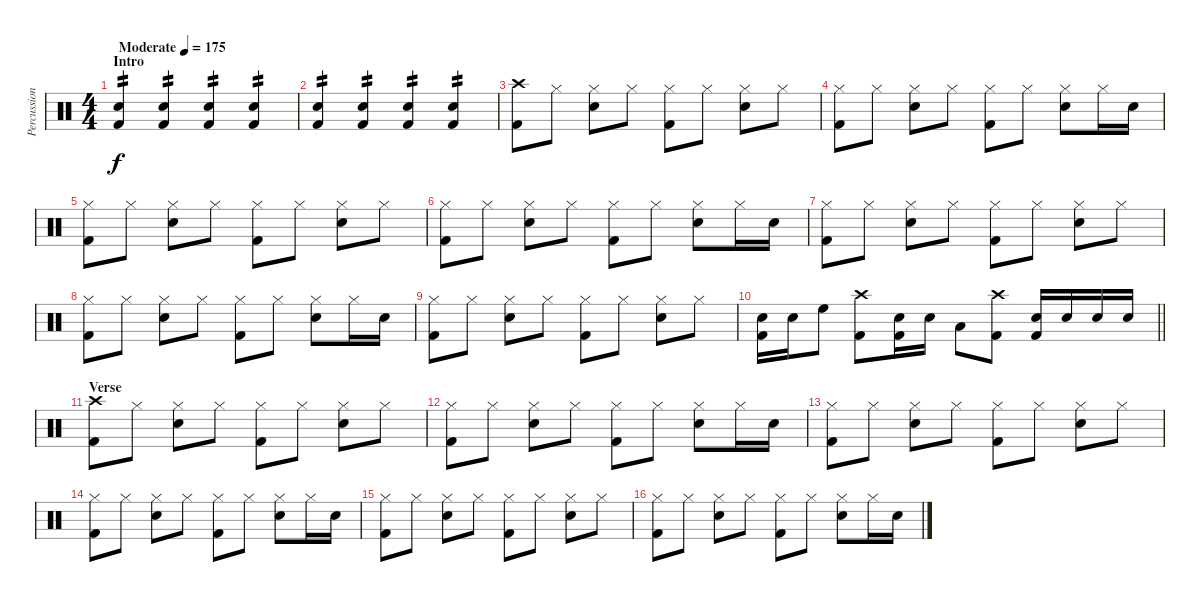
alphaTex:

\track ("Percussion" "Percussion") {instrument percussion}
\staff {score}
\articulation defaults
\ts (4 4)
\section ("" "Intro")
\tempo (175 "Moderate")
\clef neutral
\ks c
("Snare (hit) 2" "Kick (hit) 2").4{tp 2 dy f} ("Snare (hit) 2" "Kick (hit) 2").4{tp 2} ("Snare (hit) 2" "Kick (hit) 2").4{tp 2} ("Snare (hit) 2" "Kick (hit) 2").4{tp 2} |
("Snare (hit) 2" "Kick (hit) 2").4{tp 2} ("Snare (hit) 2" "Kick (hit) 2").4{tp 2} ("Snare (hit) 2" "Kick (hit) 2").4{tp 2} ("Snare (hit) 2" "Kick (hit) 2").4{tp 2} |
("Crash high (hit)" "Kick (hit) 2").8 "Hi-Hat (closed)".8 ("Hi-Hat (closed)" "Snare (hit) 2").8 "Hi-Hat (closed)".8 ("Hi-Hat (closed)" "Kick (hit) 2").8 "Hi-Hat (closed)".8 ("Hi-Hat (closed)" "Snare (hit) 2").8 "Hi-Hat (closed)".8 |
("Hi-Hat (closed)" "Kick (hit) 2").8 "Hi-Hat (closed)".8 ("Hi-Hat (closed)" "Snare (hit) 2").8 "Hi-Hat (closed)".8 ("Hi-Hat (closed)" "Kick (hit) 2").8 "Hi-Hat (closed)".8 ("Hi-Hat (closed)" "Snare (hit) 2").8 "Hi-Hat (closed)".16 "Snare (hit) 2".16 |
("Hi-Hat (closed)" "Kick (hit) 2").8 "Hi-Hat (closed)".8 ("Hi-Hat (closed)" "Snare (hit) 2").8 "Hi-Hat (closed)".8 ("Hi-Hat (closed)" "Kick (hit) 2").8 "Hi-Hat (closed)".8 ("Hi-Hat (closed)" "Snare (hit) 2").8 "Hi-Hat (closed)".8 |
("Hi-Hat (closed)" "Kick (hit) 2").8 "Hi-Hat (closed)".8 ("Hi-Hat (closed)" "Snare (hit) 2").8 "Hi-Hat (closed)".8 ("Hi-Hat (closed)" "Kick (hit) 2").8 "Hi-Hat (closed)".8 ("Hi-Hat (closed)" "Snare (hit) 2").8 "Hi-Hat (closed)".16 "Snare (hit) 2".16 |
("Hi-Hat (closed)" "Kick (hit) 2").8 "Hi-Hat (closed)".8 ("Hi-Hat (closed)" "Snare (hit) 2").8 "Hi-Hat (closed)".8 ("Hi-Hat (closed)" "Kick (hit) 2").8 "Hi-Hat (closed)".8 ("Hi-Hat (closed)" "Snare (hit) 2").8 "Hi-Hat (closed)".8 |
("Hi-Hat (closed)" "Kick (hit) 2").8 "Hi-Hat (closed)".8 ("Hi-Hat (closed)" "Snare (hit) 2").8 "Hi-Hat (closed)".8 ("Hi-Hat (closed)" "Kick (hit) 2").8 "Hi-Hat (closed)".8 ("Hi-Hat (closed)" "Snare (hit) 2").8 "Hi-Hat (closed)".16 "Snare (hit) 2".16 |
("Hi-Hat (closed)" "Kick (hit) 2").8 "Hi-Hat (closed)".8 ("Hi-Hat (closed)" "Snare (hit) 2").8 "Hi-Hat (closed)".8 ("Hi-Hat (closed)" "Kick (hit) 2").8 "Hi-Hat (closed)".8 ("Hi-Hat (closed)" "Snare (hit) 2").8 "Hi-Hat (closed)".8 |
\barLineRight lightlight
("Snare (hit) 2" "Kick (hit) 2").16 "Snare (hit) 2".16 "High Floor Tom (hit)".8 ("Crash high (hit)" "Kick (hit) 2").8 ("Snare (hit) 2" "Kick (hit) 2").16 "Snare (hit) 2".16 "Low Floor Tom (hit)".8 ("Crash high (hit)" "Kick (hit) 2").8 ("Snare (hit) 2" "Kick (hit) 2").16 "Snare (hit) 2".16 "Snare (hit) 2".16 "Snare (hit) 2".16 |
\section ("" "Verse")
("Crash high (hit)" "Kick (hit) 2").8 "Hi-Hat (closed)".8 ("Hi-Hat (closed)" "Snare (hit) 2").8 "Hi-Hat (closed)".8 ("Hi-Hat (closed)" "Kick (hit) 2").8 "Hi-Hat (closed)".8 ("Hi-Hat (closed)" "Snare (hit) 2").8 "Hi-Hat (closed)".8 |
("Hi-Hat (closed)" "Kick (hit) 2").8 "Hi-Hat (closed)".8 ("Hi-Hat (closed)" "Snare (hit) 2").8 "Hi-Hat (closed)".8 ("Hi-Hat (closed)" "Kick (hit) 2").8 "Hi-Hat (closed)".8 ("Hi-Hat (closed)" "Snare (hit) 2").8 "Hi-Hat (closed)".16 "Snare (hit) 2".16 |
("Hi-Hat (closed)" "Kick (hit) 2").8 "Hi-Hat (closed)".8 ("Hi-Hat (closed)" "Snare (hit) 2").8 "Hi-Hat (closed)".8 ("Hi-Hat (closed)" "Kick (hit) 2").8 "Hi-Hat (closed)".8 ("Hi-Hat (closed)" "Snare (hit) 2").8 "Hi-Hat (closed)".8 |
("Hi-Hat (closed)" "Kick (hit) 2").8 "Hi-Hat (closed)".8 ("Hi-Hat (closed)" "Snare (hit) 2").8 "Hi-Hat (closed)".8 ("Hi-Hat (closed)" "Kick (hit) 2").8 "Hi-Hat (closed)".8 ("Hi-Hat (closed)" "Snare (hit) 2").8 "Hi-Hat (closed)".16 "Snare (hit) 2".16 |
("Hi-Hat (closed)" "Kick (hit) 2").8 "Hi-Hat (closed)".8 ("Hi-Hat (closed)" "Snare (hit) 2").8 "Hi-Hat (closed)".8 ("Hi-Hat (closed)" "Kick (hit) 2").8 "Hi-Hat (closed)".8 ("Hi-Hat (closed)" "Snare (hit) 2").8 "Hi-Hat (closed)".8 |
("Hi-Hat (closed)" "Kick (hit) 2").8 "Hi-Hat (closed)".8 ("Hi-Hat (closed)" "Snare (hit) 2").8 "Hi-Hat (closed)".8 ("Hi-Hat (closed)" "Kick (hit) 2").8 "Hi-Hat (closed)".8 ("Hi-Hat (closed)" "Snare (hit) 2").8 "Hi-Hat (closed)".16 "Snare (hit) 2".16
